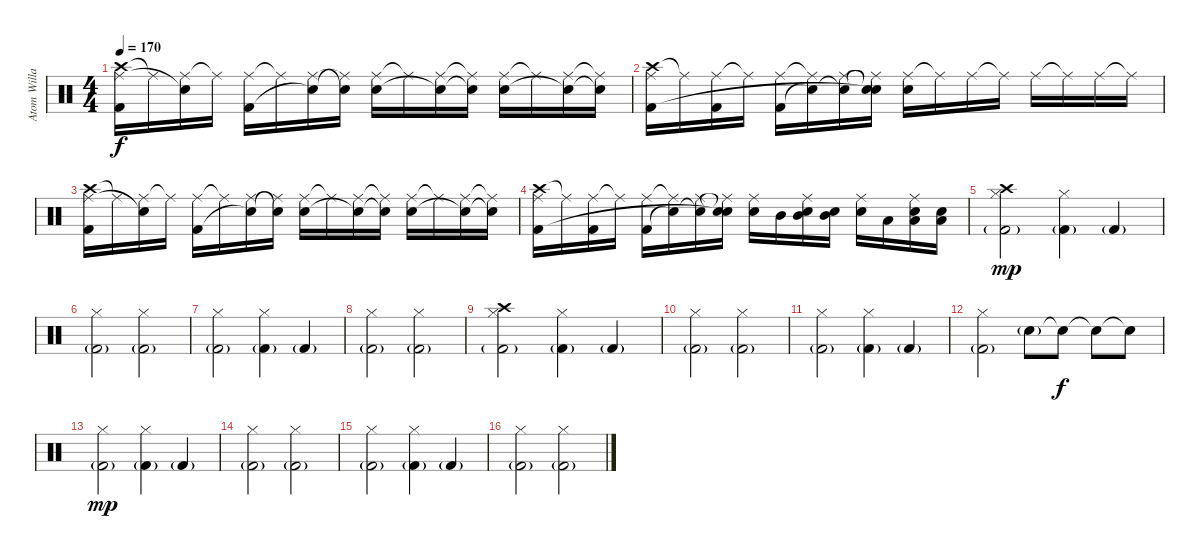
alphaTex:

\track ("Atom Willard" "Atom Willa") {instrument percussion}
\staff {score}
\articulation defaults
\ts (4 4)
\tempo 170
\clef neutral
\ks c
("Crash high (hit)" "Ride (middle)" "Kick (hit) 2").16{dy f} "Ride (middle)"{t}.16 ("Ride (middle)" "Snare (hit)"{t}).16 "Ride (middle)"{t}.16 ("Ride (middle)" "Kick (hit) 2").16 "Ride (middle)"{t}.16 ("Ride (middle)" "Snare (hit)"{t}).16 ("Snare (hit)"{t} "Ride (middle)"{t}).16 ("Ride (middle)" "Electric Snare (hit)").16 "Ride (middle)"{t}.16 ("Ride (middle)" "Electric Snare (hit)"{t}).16 ("Ride (middle)"{t} "Snare (hit)"{t}).16 ("Ride (middle)" "Electric Snare (hit)").16 "Ride (middle)"{t}.16 ("Ride (middle)" "Snare (hit)"{t}).16 ("Ride (middle)"{t} "Snare (hit)"{t}).16 |
("Crash high (hit)" "Ride (middle)" "Kick (hit) 2").16 "Ride (middle)"{t}.16 ("Ride (middle)" "Kick (hit) 2").16 "Ride (middle)"{t}.16 ("Ride (middle)" "Kick (hit) 2").16 ("Ride (middle)"{t} "Snare (hit)"{t}).16 ("Ride (middle)" "Snare (hit)"{t}).16 ("Snare (hit)"{t} "Ride (middle)"{t} "Snare (hit)"{t}).16 ("Ride (middle)" "Electric Snare (hit)").16 "Ride (middle)"{t}.16 "Ride (middle)".16 "Ride (middle)"{t}.16 "Ride (middle)".16 "Ride (middle)"{t}.16 "Ride (middle)".16 "Ride (middle)"{t}.16 |
("Crash high (hit)" "Ride (middle)" "Kick (hit) 2").16 "Ride (middle)"{t}.16 ("Ride (middle)" "Snare (hit)"{t}).16 "Ride (middle)"{t}.16 ("Ride (middle)" "Kick (hit) 2").16 "Ride (middle)"{t}.16 ("Ride (middle)" "Snare (hit)"{t}).16 ("Snare (hit)"{t} "Ride (middle)"{t}).16 ("Ride (middle)" "Electric Snare (hit)").16 "Ride (middle)"{t}.16 ("Ride (middle)" "Electric Snare (hit)"{t}).16 ("Ride (middle)"{t} "Snare (hit)"{t}).16 ("Ride (middle)" "Electric Snare (hit)").16 "Ride (middle)"{t}.16 ("Ride (middle)" "Snare (hit)"{t}).16 ("Ride (middle)"{t} "Snare (hit)"{t}).16 |
("Crash high (hit)" "Ride (middle)" "Kick (hit) 2").16 "Ride (middle)"{t}.16 ("Ride (middle)" "Kick (hit) 2").16 "Ride (middle)"{t}.16 ("Ride (middle)" "Kick (hit) 2").16 ("Ride (middle)"{t} "Snare (hit)"{t}).16 ("Ride (middle)" "Snare (hit)"{t}).16 ("Snare (hit)"{t} "Ride (middle)"{t} "Snare (hit)"{t}).16 ("Ride (middle)" "Electric Snare (hit)").16 "Mid Tom (hit)".16 ("Ride (middle)" "Electric Snare (hit)" "Mid Tom (hit)").16 ("Electric Snare (hit)" "Mid Tom (hit)").16 ("Ride (middle)" "Electric Snare (hit)").16 "Low Tom (hit)".16 ("Ride (middle)" "Electric Snare (hit)" "Low Tom (hit)").16 ("Electric Snare (hit)" "Low Tom (hit)").16 |
("Crash high (hit)" "Hi-Hat (closed)" "Kick (hit) 2"{g}).2{dy mp} ("Hi-Hat (closed)" "Kick (hit) 2"{g}).4 "Kick (hit) 2"{g}.4 |
("Hi-Hat (closed)" "Kick (hit) 2"{g}).2 ("Hi-Hat (closed)" "Kick (hit) 2"{g}).2 |
("Hi-Hat (closed)" "Kick (hit) 2"{g}).2 ("Hi-Hat (closed)" "Kick (hit) 2"{g}).4 "Kick (hit) 2"{g}.4 |
("Hi-Hat (closed)" "Kick (hit) 2"{g}).2 ("Hi-Hat (closed)" "Kick (hit) 2"{g}).2 |
("Crash high (hit)" "Hi-Hat (closed)" "Kick (hit) 2"{g}).2 ("Hi-Hat (closed)" "Kick (hit) 2"{g}).4 "Kick (hit) 2"{g}.4 |
("Hi-Hat (closed)" "Kick (hit) 2"{g}).2 ("Hi-Hat (closed)" "Kick (hit) 2"{g}).2 |
("Hi-Hat (closed)" "Kick (hit) 2"{g}).2 ("Hi-Hat (closed)" "Kick (hit) 2"{g}).4 "Kick (hit) 2"{g}.4 |
("Hi-Hat (closed)" "Kick (hit) 2"{g}).2 "Electric Snare (hit)"{g}.8 "Snare (hit)"{t}.8{dy f} "Snare (hit)"{t}.8 "Snare (hit)"{t}.8 |
("Hi-Hat (closed)" "Kick (hit) 2"{g}).2{dy mp} ("Hi-Hat (closed)" "Kick (hit) 2"{g}).4 "Kick (hit) 2"{g}.4 |
("Hi-Hat (closed)" "Kick (hit) 2"{g}).2 ("Hi-Hat (closed)" "Kick (hit) 2"{g}).2 |
("Hi-Hat (closed)" "Kick (hit) 2"{g}).2 ("Hi-Hat (closed)" "Kick (hit) 2"{g}).4 "Kick (hit) 2"{g}.4 |
("Hi-Hat (closed)" "Kick (hit) 2"{g}).2 ("Hi-Hat (closed)" "Kick (hit) 2"{g}).2
